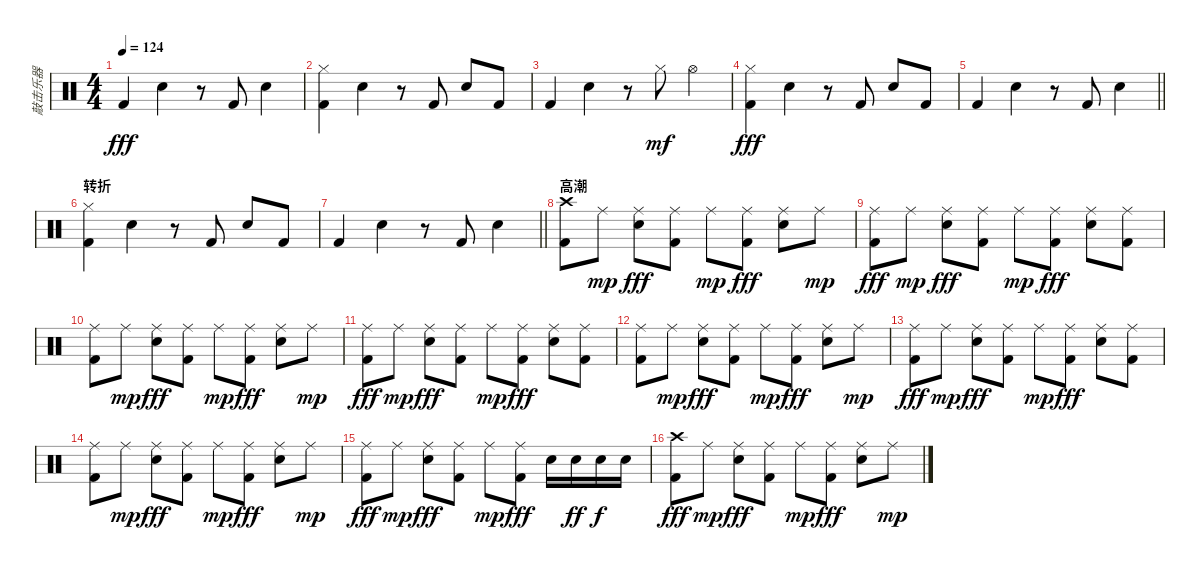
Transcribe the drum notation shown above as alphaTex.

\track ("敲击乐器" "敲击乐器") {instrument percussion}
\staff {score}
\articulation defaults
\ts (4 4)
\tempo 124
\clef neutral
\ks c "Kick (hit) 2".4{dy fff} "Snare (hit) 2".4
r.8 "Kick (hit) 2".8 "Snare (hit) 2".4 |
("Hi-Hat (closed)" "Kick (hit) 2").4 "Snare (hit) 2".4 r.8 "Kick (hit) 2".8 "Snare (hit) 2".8 "Kick (hit) 2".8 |
"Kick (hit) 2".4 "Snare (hit) 2".4 r.8 "Hi-Hat (closed)".8{dy mf} "Hi-Hat (open)".4 |
("Hi-Hat (closed)" "Kick (hit) 2").4{dy fff} "Snare (hit) 2".4 r.8 "Kick (hit) 2".8 "Snare (hit) 2".8 "Kick (hit) 2".8 |
\barLineRight lightlight "Kick (hit) 2".4 "Snare (hit) 2".4
r.8 "Kick (hit) 2".8 "Snare (hit) 2".4 |
\section ("" "转折")
("Hi-Hat (closed)" "Kick (hit) 2").4 "Snare (hit) 2".4 r.8 "Kick (hit) 2".8 "Snare (hit) 2".8 "Kick (hit) 2".8 |
\barLineRight lightlight "Kick (hit) 2".4 "Snare (hit) 2".4
r.8 "Kick (hit) 2".8 "Snare (hit) 2".4 |
\section ("" "高潮")
("Crash high (hit)" "Kick (hit) 2").8 "Ride (middle)".8{dy mp} ("Ride (middle)" "Snare (hit) 2").8{dy fff} ("Ride (middle)" "Kick (hit) 2").8 "Ride (middle)".8{dy mp} ("Ride (middle)" "Kick (hit) 2").8{dy fff} ("Ride (middle)" "Snare (hit) 2").8 "Ride (middle)".8{dy mp} |
("Ride (middle)" "Kick (hit) 2").8{dy fff} "Ride (middle)".8{dy mp} ("Ride (middle)" "Snare (hit) 2").8{dy fff} ("Ride (middle)" "Kick (hit) 2").8 "Ride (middle)".8{dy mp} ("Ride (middle)" "Kick (hit) 2").8{dy fff} ("Ride (middle)" "Snare (hit) 2").8 ("Ride (middle)" "Kick (hit) 2").8 |
("Ride (middle)" "Kick (hit) 2").8 "Ride (middle)".8{dy mp} ("Ride (middle)" "Snare (hit) 2").8{dy fff} ("Ride (middle)" "Kick (hit) 2").8 "Ride (middle)".8{dy mp} ("Ride (middle)" "Kick (hit) 2").8{dy fff} ("Ride (middle)" "Snare (hit) 2").8 "Ride (middle)".8{dy mp} |
("Ride (middle)" "Kick (hit) 2").8{dy fff} "Ride (middle)".8{dy mp} ("Ride (middle)" "Snare (hit) 2").8{dy fff} ("Ride (middle)" "Kick (hit) 2").8 "Ride (middle)".8{dy mp} ("Ride (middle)" "Kick (hit) 2").8{dy fff} ("Ride (middle)" "Snare (hit) 2").8 ("Ride (middle)" "Kick (hit) 2").8 |
("Ride (middle)" "Kick (hit) 2").8 "Ride (middle)".8{dy mp} ("Ride (middle)" "Snare (hit) 2").8{dy fff} ("Ride (middle)" "Kick (hit) 2").8 "Ride (middle)".8{dy mp} ("Ride (middle)" "Kick (hit) 2").8{dy fff} ("Ride (middle)" "Snare (hit) 2").8 "Ride (middle)".8{dy mp} |
("Ride (middle)" "Kick (hit) 2").8{dy fff} "Ride (middle)".8{dy mp} ("Ride (middle)" "Snare (hit) 2").8{dy fff} ("Ride (middle)" "Kick (hit) 2").8 "Ride (middle)".8{dy mp} ("Ride (middle)" "Kick (hit) 2").8{dy fff} ("Ride (middle)" "Snare (hit) 2").8 ("Ride (middle)" "Kick (hit) 2").8 |
("Ride (middle)" "Kick (hit) 2").8 "Ride (middle)".8{dy mp} ("Ride (middle)" "Snare (hit) 2").8{dy fff} ("Ride (middle)" "Kick (hit) 2").8 "Ride (middle)".8{dy mp} ("Ride (middle)" "Kick (hit) 2").8{dy fff} ("Ride (middle)" "Snare (hit) 2").8 "Ride (middle)".8{dy mp} |
("Ride (middle)" "Kick (hit) 2").8{dy fff} "Ride (middle)".8{dy mp} ("Ride (middle)" "Snare (hit) 2").8{dy fff} ("Ride (middle)" "Kick (hit) 2").8 "Ride (middle)".8{dy mp} ("Ride (middle)" "Kick (hit) 2").8{dy fff} "Snare (hit) 2".16 "Snare (hit) 2".16{dy ff} "Snare (hit) 2".16{dy f} "Snare (hit) 2".16 |
("Crash high (hit)" "Kick (hit) 2").8{dy fff} "Ride (middle)".8{dy mp} ("Ride (middle)" "Snare (hit) 2").8{dy fff} ("Ride (middle)" "Kick (hit) 2").8 "Ride (middle)".8{dy mp} ("Ride (middle)" "Kick (hit) 2").8{dy fff} ("Ride (middle)" "Snare (hit) 2").8 "Ride (middle)".8{dy mp}
